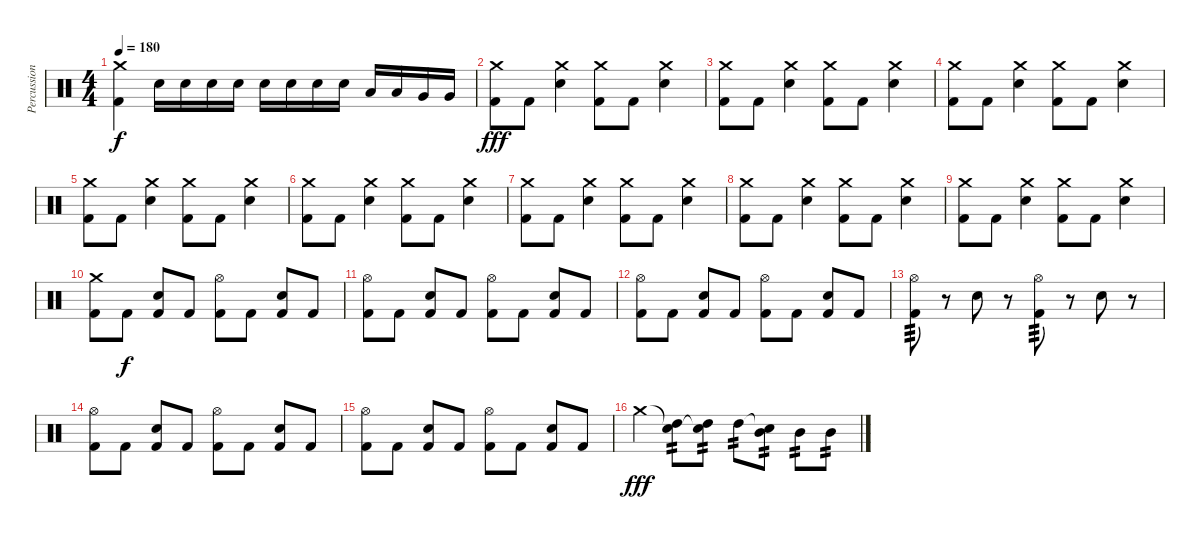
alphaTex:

\track ("Percussion" "Percussion") {instrument percussion}
\staff {score}
\articulation defaults
\ts (4 4)
\tempo 180
\clef neutral
\ks c
("Crash medium (hit)" "Kick (hit) 2").4{dy f} "Electric Snare (hit)".16 "Electric Snare (hit)".16 "Electric Snare (hit)".16 "Electric Snare (hit)".16 "Electric Snare (hit)".16 "Electric Snare (hit)".16 "Electric Snare (hit)".16 "Electric Snare (hit)".16 "Low Tom (hit)".16 "Low Tom (hit)".16 "Very Low Tom (hit)".16 "Very Low Tom (hit)".16 |
("Crash medium (hit)" "Kick (hit) 2").8{dy fff} "Kick (hit) 2".8 ("Crash medium (hit)" "Electric Snare (hit)").4 ("Crash medium (hit)" "Kick (hit) 2").8 "Kick (hit) 2".8 ("Crash medium (hit)" "Electric Snare (hit)").4 |
("Crash medium (hit)" "Kick (hit) 2").8 "Kick (hit) 2".8 ("Crash medium (hit)" "Electric Snare (hit)").4 ("Crash medium (hit)" "Kick (hit) 2").8 "Kick (hit) 2".8 ("Crash medium (hit)" "Electric Snare (hit)").4 |
("Crash medium (hit)" "Kick (hit) 2").8 "Kick (hit) 2".8 ("Crash medium (hit)" "Electric Snare (hit)").4 ("Crash medium (hit)" "Kick (hit) 2").8 "Kick (hit) 2".8 ("Crash medium (hit)" "Electric Snare (hit)").4 |
("Crash medium (hit)" "Kick (hit) 2").8 "Kick (hit) 2".8 ("Crash medium (hit)" "Electric Snare (hit)").4 ("Crash medium (hit)" "Kick (hit) 2").8 "Kick (hit) 2".8 ("Crash medium (hit)" "Electric Snare (hit)").4 |
("Crash medium (hit)" "Kick (hit) 2").8 "Kick (hit) 2".8 ("Crash medium (hit)" "Electric Snare (hit)").4 ("Crash medium (hit)" "Kick (hit) 2").8 "Kick (hit) 2".8 ("Crash medium (hit)" "Electric Snare (hit)").4 |
("Crash medium (hit)" "Kick (hit) 2").8 "Kick (hit) 2".8 ("Crash medium (hit)" "Electric Snare (hit)").4 ("Crash medium (hit)" "Kick (hit) 2").8 "Kick (hit) 2".8 ("Crash medium (hit)" "Electric Snare (hit)").4 |
("Crash medium (hit)" "Kick (hit) 2").8 "Kick (hit) 2".8 ("Crash medium (hit)" "Electric Snare (hit)").4 ("Crash medium (hit)" "Kick (hit) 2").8 "Kick (hit) 2".8 ("Crash medium (hit)" "Electric Snare (hit)").4 |
("Crash medium (hit)" "Kick (hit) 2").8 "Kick (hit) 2".8 ("Crash medium (hit)" "Electric Snare (hit)").4 ("Crash medium (hit)" "Kick (hit) 2").8 "Kick (hit) 2".8 ("Crash medium (hit)" "Electric Snare (hit)").4 |
("Crash medium (hit)" "Kick (hit) 2").8 "Kick (hit) 2".8{dy f} ("Electric Snare (hit)" "Kick (hit) 2").8 "Kick (hit) 2".8 ("Hi-Hat (open)" "Kick (hit) 2").8 "Kick (hit) 2".8 ("Electric Snare (hit)" "Kick (hit) 2").8 "Kick (hit) 2".8 |
("Hi-Hat (open)" "Kick (hit) 2").8 "Kick (hit) 2".8 ("Electric Snare (hit)" "Kick (hit) 2").8 "Kick (hit) 2".8 ("Hi-Hat (open)" "Kick (hit) 2").8 "Kick (hit) 2".8 ("Electric Snare (hit)" "Kick (hit) 2").8 "Kick (hit) 2".8 |
("Hi-Hat (open)" "Kick (hit) 2").8 "Kick (hit) 2".8 ("Electric Snare (hit)" "Kick (hit) 2").8 "Kick (hit) 2".8 ("Hi-Hat (open)" "Kick (hit) 2").8 "Kick (hit) 2".8 ("Electric Snare (hit)" "Kick (hit) 2").8 "Kick (hit) 2".8 |
("Hi-Hat (open)" "Kick (hit) 2").8{tp 3} r.8 "Electric Snare (hit)".8 r.8 ("Hi-Hat (open)" "Kick (hit) 2").8{tp 3} r.8 "Electric Snare (hit)".8 r.8 |
("Hi-Hat (open)" "Kick (hit) 2").8 "Kick (hit) 2".8 ("Electric Snare (hit)" "Kick (hit) 2").8 "Kick (hit) 2".8 ("Hi-Hat (open)" "Kick (hit) 2").8 "Kick (hit) 2".8 ("Electric Snare (hit)" "Kick (hit) 2").8 "Kick (hit) 2".8 |
("Hi-Hat (open)" "Kick (hit) 2").8 "Kick (hit) 2".8 ("Electric Snare (hit)" "Kick (hit) 2").8 "Kick (hit) 2".8 ("Hi-Hat (open)" "Kick (hit) 2").8 "Kick (hit) 2".8 ("Electric Snare (hit)" "Kick (hit) 2").8 "Kick (hit) 2".8 |
"Crash medium (hit)".4{dy fff} ("Snare (hit)"{t} "High Tom (hit)").8{tp 2 balance 10} ("Snare (hit)"{t} "High Tom (hit)").8{tp 2} "High Tom (hit)".8{tp 2 balance 10} ("Snare (hit)"{t} "Mid Tom (hit)").8{tp 2} "Mid Tom (hit)".8{tp 2 balance 9} "Mid Tom (hit)".8{tp 2}
